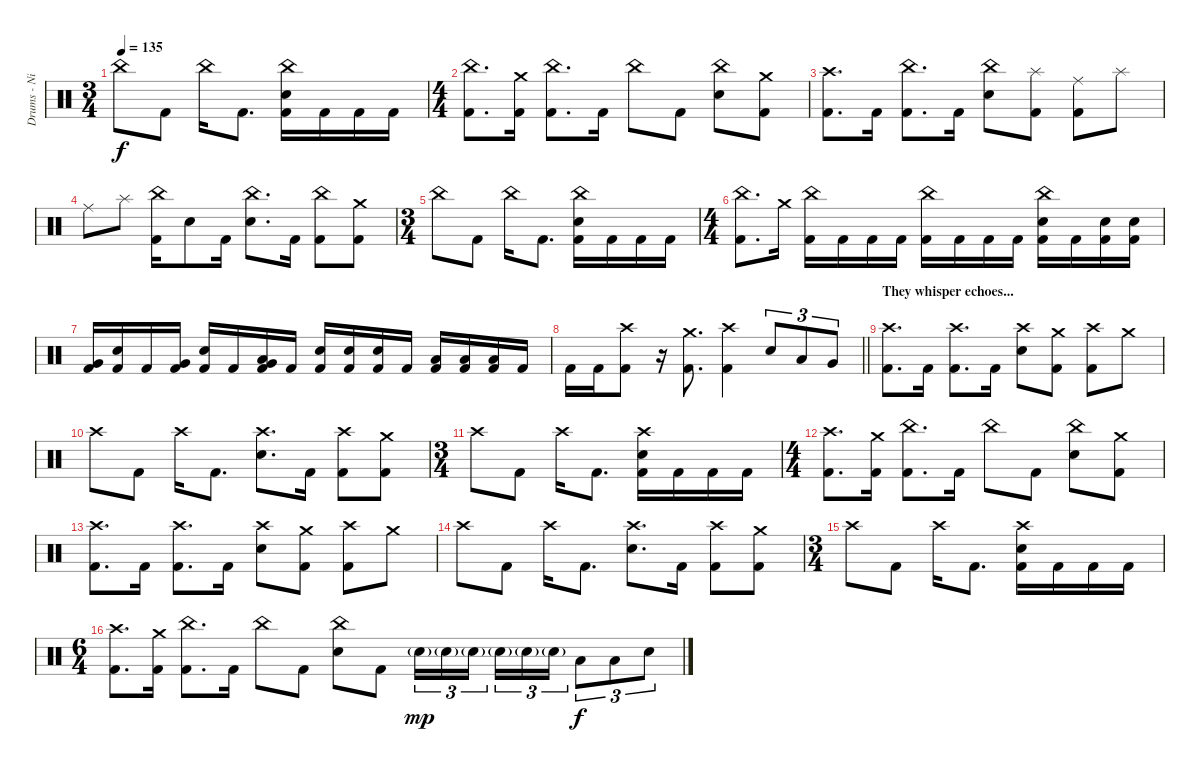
\track ("Drums - Nic" "Drums - Ni") {instrument percussion}
\staff {score}
\articulation defaults
\ts (3 4)
\tempo 135
\clef neutral
\ks c "China (hit)".8{dy f} "Kick (hit) 2".8 "China (hit)".16 "Kick (hit) 2".8{d}
("China (hit)" "Electric Snare (hit)" "Kick (hit) 2").16 "Kick (hit) 2".16 "Kick (hit) 2".16 "Kick (hit) 2".16 |
\ts (4 4)
("China (hit)" "Kick (hit) 2").8{d} ("Crash medium (hit)" "Kick (hit) 2").16 ("China (hit)" "Kick (hit) 2").8{d} "Kick (hit) 2".16 "China (hit)".8 "Kick (hit) 2".8 ("China (hit)" "Electric Snare (hit)").8 ("Crash medium (hit)" "Kick (hit) 2").8 |
("Crash high (hit)" "Kick (hit) 2").8{d} "Kick (hit) 2".16 ("China (hit)" "Kick (hit) 2").8{d} "Kick (hit) 2".16 ("China (hit)" "Electric Snare (hit)").8 ("Splash (hit)" "Kick (hit) 2").8 ("Ride (middle)" "Kick (hit) 2").8 "Splash (hit)".8 |
"Ride (middle)".8 "Splash (hit)".8 ("China (hit)" "Kick (hit) 2").16 "Electric Snare (hit)".8 "Kick (hit) 2".16 ("China (hit)" "Electric Snare (hit)").8{d} "Kick (hit) 2".16 ("China (hit)" "Kick (hit) 2").8 ("Crash medium (hit)" "Kick (hit) 2").8 |
\ts (3 4)
"China (hit)".8 "Kick (hit) 2".8 "China (hit)".16 "Kick (hit) 2".8{d} ("China (hit)" "Electric Snare (hit)" "Kick (hit) 2").16 "Kick (hit) 2".16 "Kick (hit) 2".16 "Kick (hit) 2".16 |
\ts (4 4)
("China (hit)" "Kick (hit) 2").8{d} "Crash medium (hit)".16 ("China (hit)" "Kick (hit) 2").16 "Kick (hit) 2".16 "Kick (hit) 2".16 "Kick (hit) 2".16 ("China (hit)" "Kick (hit) 2").16 "Kick (hit) 2".16 "Kick (hit) 2".16 "Kick (hit) 2".16 ("China (hit)" "Electric Snare (hit)" "Kick (hit) 2").16 "Kick (hit) 2".16 ("Electric Snare (hit)" "Kick (hit) 2").16 ("Electric Snare (hit)" "Kick (hit) 2").16 |
("Very Low Tom (hit)" "Kick (hit) 2").16 ("Electric Snare (hit)" "Kick (hit) 2").16 "Kick (hit) 2".16 ("Very Low Tom (hit)" "Kick (hit) 2").16 ("Electric Snare (hit)" "Kick (hit) 2").16 "Kick (hit) 2".16 ("Very Low Tom (hit)" "Low Floor Tom (hit)" "Kick (hit) 2").16 "Kick (hit) 2".16 ("Electric Snare (hit)" "Kick (hit) 2").16 ("Electric Snare (hit)" "Kick (hit) 2").16 ("Electric Snare (hit)" "Kick (hit) 2").16 "Kick (hit) 2".16 ("Low Floor Tom (hit)" "Kick (hit) 2").16 ("Low Floor Tom (hit)" "Kick (hit) 2").16 ("Low Floor Tom (hit)" "Kick (hit) 2").16 "Kick (hit) 2".16 |
\barLineRight lightlight "Kick (hit) 2".16 "Kick (hit) 2".16
("Crash high (hit)" "Kick (hit) 2").8 r.16 ("Crash medium (hit)" "Kick (hit) 2").8{d} ("Crash high (hit)" "Kick (hit) 2").4 "Electric Snare (hit)".8{tu (3 2)} "Low Tom (hit)".8{tu (3 2)} "Very Low Tom (hit)".8{tu (3 2)} |
\section ("" "They whisper echoes...")
("Crash high (hit)" "Kick (hit) 2").8{d} "Kick (hit) 2".16 ("Crash high (hit)" "Kick (hit) 2").8{d} "Kick (hit) 2".16 ("Crash high (hit)" "Electric Snare (hit)").8 ("Crash medium (hit)" "Kick (hit) 2").8 ("Crash high (hit)" "Kick (hit) 2").8 "Crash medium (hit)".8 |
"Crash high (hit)".8 "Kick (hit) 2".8 "Crash high (hit)".16 "Kick (hit) 2".8{d} ("Crash high (hit)" "Electric Snare (hit)").8{d} "Kick (hit) 2".16 ("Crash high (hit)" "Kick (hit) 2").8 ("Crash medium (hit)" "Kick (hit) 2").8 |
\ts (3 4)
"Crash high (hit)".8 "Kick (hit) 2".8 "Crash high (hit)".16 "Kick (hit) 2".8{d} ("Crash high (hit)" "Electric Snare (hit)" "Kick (hit) 2").16 "Kick (hit) 2".16 "Kick (hit) 2".16 "Kick (hit) 2".16 |
\ts (4 4)
("Crash high (hit)" "Kick (hit) 2").8{d} ("Crash medium (hit)" "Kick (hit) 2").16 ("China (hit)" "Kick (hit) 2").8{d} "Kick (hit) 2".16 "China (hit)".8 "Kick (hit) 2".8 ("China (hit)" "Electric Snare (hit)").8 ("Crash medium (hit)" "Kick (hit) 2").8 |
("Crash high (hit)" "Kick (hit) 2").8{d} "Kick (hit) 2".16 ("Crash high (hit)" "Kick (hit) 2").8{d} "Kick (hit) 2".16 ("Crash high (hit)" "Electric Snare (hit)").8 ("Crash medium (hit)" "Kick (hit) 2").8 ("Crash high (hit)" "Kick (hit) 2").8 "Crash medium (hit)".8 |
"Crash high (hit)".8 "Kick (hit) 2".8 "Crash high (hit)".16 "Kick (hit) 2".8{d} ("Crash high (hit)" "Electric Snare (hit)").8{d} "Kick (hit) 2".16 ("Crash high (hit)" "Kick (hit) 2").8 ("Crash medium (hit)" "Kick (hit) 2").8 |
\ts (3 4)
"Crash high (hit)".8 "Kick (hit) 2".8 "Crash high (hit)".16 "Kick (hit) 2".8{d} ("Crash high (hit)" "Electric Snare (hit)" "Kick (hit) 2").16 "Kick (hit) 2".16 "Kick (hit) 2".16 "Kick (hit) 2".16 |
\ts (6 4)
("Crash high (hit)" "Kick (hit) 2").8{d} ("Crash medium (hit)" "Kick (hit) 2").16 ("China (hit)" "Kick (hit) 2").8{d} "Kick (hit) 2".16 "China (hit)".8 "Kick (hit) 2".8 ("China (hit)" "Electric Snare (hit)").8 "Kick (hit) 2".8 "Electric Snare (hit)"{g}.16{tu (3 2) dy mp} "Electric Snare (hit)"{g}.16{tu (3 2)} "Electric Snare (hit)"{g}.16{tu (3 2) beam splitsecondary} "Electric Snare (hit)"{g}.16{tu (3 2)} "Electric Snare (hit)"{g}.16{tu (3 2)} "Electric Snare (hit)"{g}.16{tu (3 2)} "Low Tom (hit)".8{tu (3 2) dy f} "Low Tom (hit)".8{tu (3 2)} "Electric Snare (hit)".8{tu (3 2)}
